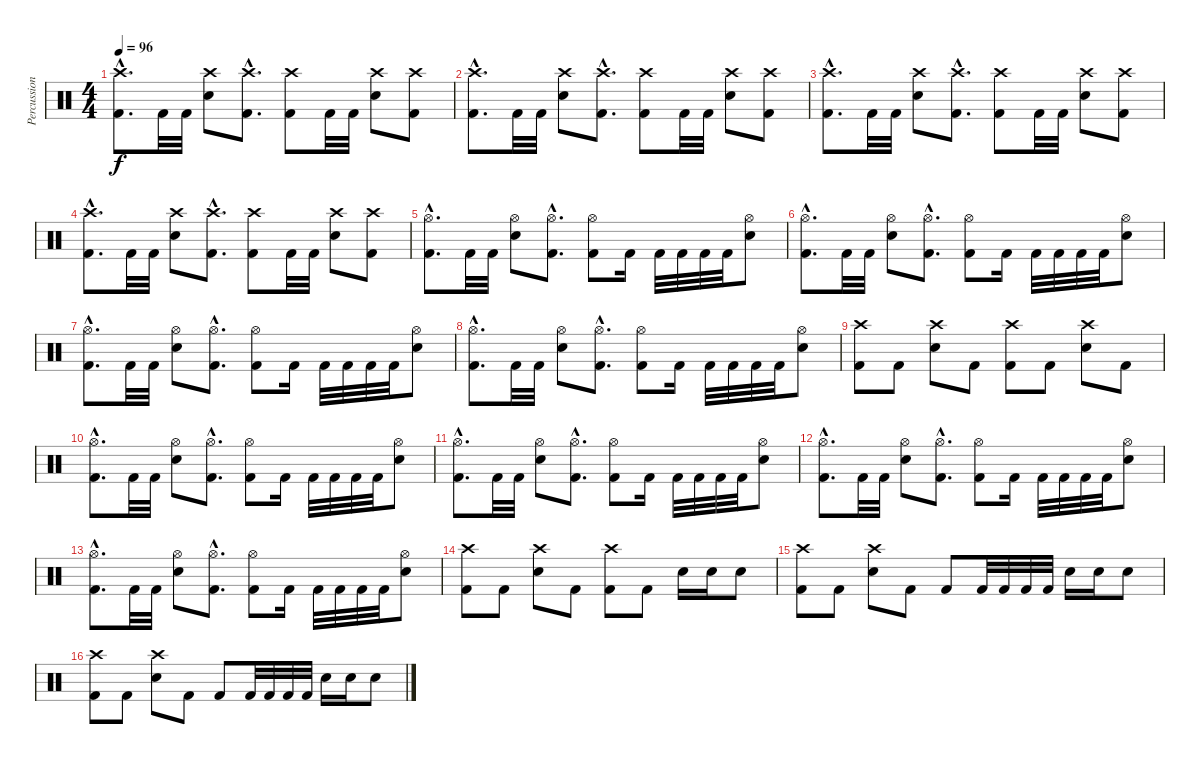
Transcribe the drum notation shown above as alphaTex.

\track ("Percussion" "Percussion") {instrument percussion}
\staff {score}
\articulation defaults
\ts (4 4)
\tempo 96
\clef neutral
\ks c
("Kick (hit) 2"{hac} "Crash high (hit)"{hac}).8{d dy f} "Kick (hit) 2".32 "Kick (hit) 2".32 ("Electric Snare (hit)" "Crash high (hit)").8 ("Kick (hit) 2"{hac} "Crash high (hit)"{hac}).8{d} ("Kick (hit) 2" "Crash high (hit)").8 "Kick (hit) 2".32 "Kick (hit) 2".32 ("Electric Snare (hit)" "Crash high (hit)").8 ("Kick (hit) 2" "Crash high (hit)").8 |
("Kick (hit) 2"{hac} "Crash high (hit)"{hac}).8{d} "Kick (hit) 2".32 "Kick (hit) 2".32 ("Electric Snare (hit)" "Crash high (hit)").8 ("Kick (hit) 2"{hac} "Crash high (hit)"{hac}).8{d} ("Kick (hit) 2" "Crash high (hit)").8 "Kick (hit) 2".32 "Kick (hit) 2".32 ("Electric Snare (hit)" "Crash high (hit)").8 ("Kick (hit) 2" "Crash high (hit)").8 |
("Kick (hit) 2"{hac} "Crash high (hit)"{hac}).8{d} "Kick (hit) 2".32 "Kick (hit) 2".32 ("Electric Snare (hit)" "Crash high (hit)").8 ("Kick (hit) 2"{hac} "Crash high (hit)"{hac}).8{d} ("Kick (hit) 2" "Crash high (hit)").8 "Kick (hit) 2".32 "Kick (hit) 2".32 ("Electric Snare (hit)" "Crash high (hit)").8 ("Kick (hit) 2" "Crash high (hit)").8 |
("Kick (hit) 2"{hac} "Crash high (hit)"{hac}).8{d} "Kick (hit) 2".32 "Kick (hit) 2".32 ("Electric Snare (hit)" "Crash high (hit)").8 ("Kick (hit) 2"{hac} "Crash high (hit)"{hac}).8{d} ("Kick (hit) 2" "Crash high (hit)").8 "Kick (hit) 2".32 "Kick (hit) 2".32 ("Electric Snare (hit)" "Crash high (hit)").8 ("Kick (hit) 2" "Crash high (hit)").8 |
("Kick (hit) 2"{hac} "Hi-Hat (open)"{hac}).8{d} "Kick (hit) 2".32 "Kick (hit) 2".32 ("Electric Snare (hit)" "Hi-Hat (open)").8 ("Kick (hit) 2"{hac} "Hi-Hat (open)"{hac}).8{d} ("Kick (hit) 2" "Hi-Hat (open)").8 "Kick (hit) 2".16 "Kick (hit) 2".32 "Kick (hit) 2".32 "Kick (hit) 2".32 "Kick (hit) 2".32 ("Electric Snare (hit)" "Hi-Hat (open)").8 |
("Kick (hit) 2"{hac} "Hi-Hat (open)"{hac}).8{d} "Kick (hit) 2".32 "Kick (hit) 2".32 ("Electric Snare (hit)" "Hi-Hat (open)").8 ("Kick (hit) 2"{hac} "Hi-Hat (open)"{hac}).8{d} ("Kick (hit) 2" "Hi-Hat (open)").8 "Kick (hit) 2".16 "Kick (hit) 2".32 "Kick (hit) 2".32 "Kick (hit) 2".32 "Kick (hit) 2".32 ("Electric Snare (hit)" "Hi-Hat (open)").8 |
("Kick (hit) 2"{hac} "Hi-Hat (open)"{hac}).8{d} "Kick (hit) 2".32 "Kick (hit) 2".32 ("Electric Snare (hit)" "Hi-Hat (open)").8 ("Kick (hit) 2"{hac} "Hi-Hat (open)"{hac}).8{d} ("Kick (hit) 2" "Hi-Hat (open)").8 "Kick (hit) 2".16 "Kick (hit) 2".32 "Kick (hit) 2".32 "Kick (hit) 2".32 "Kick (hit) 2".32 ("Electric Snare (hit)" "Hi-Hat (open)").8 |
("Kick (hit) 2"{hac} "Hi-Hat (open)"{hac}).8{d} "Kick (hit) 2".32 "Kick (hit) 2".32 ("Electric Snare (hit)" "Hi-Hat (open)").8 ("Kick (hit) 2"{hac} "Hi-Hat (open)"{hac}).8{d} ("Kick (hit) 2" "Hi-Hat (open)").8 "Kick (hit) 2".16 "Kick (hit) 2".32 "Kick (hit) 2".32 "Kick (hit) 2".32 "Kick (hit) 2".32 ("Electric Snare (hit)" "Hi-Hat (open)").8 |
("Kick (hit) 2" "Crash high (hit)").8 "Kick (hit) 2".8 ("Electric Snare (hit)" "Crash high (hit)").8 "Kick (hit) 2".8 ("Kick (hit) 2" "Crash high (hit)").8 "Kick (hit) 2".8 ("Electric Snare (hit)" "Crash high (hit)").8 "Kick (hit) 2".8 |
("Kick (hit) 2"{hac} "Hi-Hat (open)"{hac}).8{d} "Kick (hit) 2".32 "Kick (hit) 2".32 ("Electric Snare (hit)" "Hi-Hat (open)").8 ("Kick (hit) 2"{hac} "Hi-Hat (open)"{hac}).8{d} ("Kick (hit) 2" "Hi-Hat (open)").8 "Kick (hit) 2".16 "Kick (hit) 2".32 "Kick (hit) 2".32 "Kick (hit) 2".32 "Kick (hit) 2".32 ("Electric Snare (hit)" "Hi-Hat (open)").8 |
("Kick (hit) 2"{hac} "Hi-Hat (open)"{hac}).8{d} "Kick (hit) 2".32 "Kick (hit) 2".32 ("Electric Snare (hit)" "Hi-Hat (open)").8 ("Kick (hit) 2"{hac} "Hi-Hat (open)"{hac}).8{d} ("Kick (hit) 2" "Hi-Hat (open)").8 "Kick (hit) 2".16 "Kick (hit) 2".32 "Kick (hit) 2".32 "Kick (hit) 2".32 "Kick (hit) 2".32 ("Electric Snare (hit)" "Hi-Hat (open)").8 |
("Kick (hit) 2"{hac} "Hi-Hat (open)"{hac}).8{d} "Kick (hit) 2".32 "Kick (hit) 2".32 ("Electric Snare (hit)" "Hi-Hat (open)").8 ("Kick (hit) 2"{hac} "Hi-Hat (open)"{hac}).8{d} ("Kick (hit) 2" "Hi-Hat (open)").8 "Kick (hit) 2".16 "Kick (hit) 2".32 "Kick (hit) 2".32 "Kick (hit) 2".32 "Kick (hit) 2".32 ("Electric Snare (hit)" "Hi-Hat (open)").8 |
("Kick (hit) 2"{hac} "Hi-Hat (open)"{hac}).8{d} "Kick (hit) 2".32 "Kick (hit) 2".32 ("Electric Snare (hit)" "Hi-Hat (open)").8 ("Kick (hit) 2"{hac} "Hi-Hat (open)"{hac}).8{d} ("Kick (hit) 2" "Hi-Hat (open)").8 "Kick (hit) 2".16 "Kick (hit) 2".32 "Kick (hit) 2".32 "Kick (hit) 2".32 "Kick (hit) 2".32 ("Electric Snare (hit)" "Hi-Hat (open)").8 |
("Kick (hit) 2" "Crash high (hit)").8 "Kick (hit) 2".8 ("Electric Snare (hit)" "Crash high (hit)").8 "Kick (hit) 2".8 ("Kick (hit) 2" "Crash high (hit)").8 "Kick (hit) 2".8 "Electric Snare (hit)".16 "Electric Snare (hit)".16 "Electric Snare (hit)".8 |
("Kick (hit) 2" "Crash high (hit)").8 "Kick (hit) 2".8 ("Electric Snare (hit)" "Crash high (hit)").8 "Kick (hit) 2".8 "Kick (hit) 2".8 "Kick (hit) 2".32 "Kick (hit) 2".32 "Kick (hit) 2".32 "Kick (hit) 2".32 "Electric Snare (hit)".16 "Electric Snare (hit)".16 "Electric Snare (hit)".8 |
("Kick (hit) 2" "Crash high (hit)").8 "Kick (hit) 2".8 ("Electric Snare (hit)" "Crash high (hit)").8 "Kick (hit) 2".8 "Kick (hit) 2".8 "Kick (hit) 2".32 "Kick (hit) 2".32 "Kick (hit) 2".32 "Kick (hit) 2".32 "Electric Snare (hit)".16 "Electric Snare (hit)".16 "Electric Snare (hit)".8
